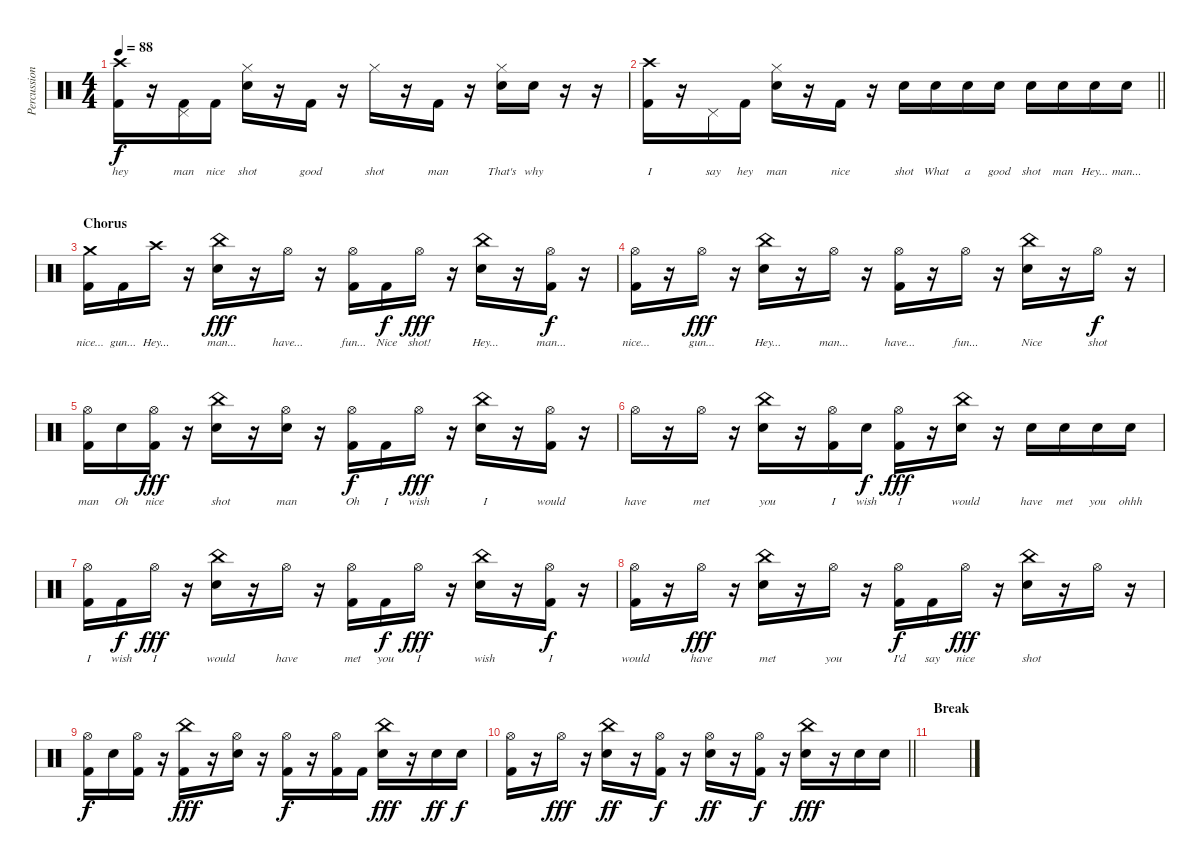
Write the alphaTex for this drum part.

\track ("Percussion" "Percussion") {instrument percussion}
\staff {score}
\articulation defaults
\ts (4 4)
\tempo 88
\clef neutral
\ks c
("Crash high (hit)" "Kick (hit) 2").16{lyrics (0 "hey") lyrics (1 "") lyrics (2 "") lyrics (3 "") lyrics (4 "") dy f} r.16 ("Pedal Hi-Hat (hit)" "Kick (hit) 2").16{lyrics (0 "man") lyrics (1 "") lyrics (2 "") lyrics (3 "") lyrics (4 "")} "Kick (hit) 2".16{lyrics (0 "nice") lyrics (1 "") lyrics (2 "") lyrics (3 "") lyrics (4 "")} ("Hi-Hat (closed)" "Snare (hit) 2").16{lyrics (0 "shot") lyrics (1 "") lyrics (2 "") lyrics (3 "") lyrics (4 "")} r.16 "Kick (hit) 2".16{lyrics (0 "good") lyrics (1 "") lyrics (2 "") lyrics (3 "") lyrics (4 "")} r.16 "Hi-Hat (closed)".16{lyrics (0 "shot") lyrics (1 "") lyrics (2 "") lyrics (3 "") lyrics (4 "")} r.16 "Kick (hit) 2".16{lyrics (0 "man") lyrics (1 "") lyrics (2 "") lyrics (3 "") lyrics (4 "")} r.16 ("Hi-Hat (closed)" "Snare (hit) 2").16{lyrics (0 "That's") lyrics (1 "") lyrics (2 "") lyrics (3 "") lyrics (4 "")} "Snare (hit) 2".16{lyrics (0 "why") lyrics (1 "") lyrics (2 "") lyrics (3 "") lyrics (4 "")} r.16 r.16 |
\barLineRight lightlight
("Crash high (hit)" "Kick (hit) 2").16{lyrics (0 "I") lyrics (1 "") lyrics (2 "") lyrics (3 "") lyrics (4 "")} r.16 "Pedal Hi-Hat (hit)".16{lyrics (0 "say") lyrics (1 "") lyrics (2 "") lyrics (3 "") lyrics (4 "")} "Kick (hit) 2".16{lyrics (0 "hey") lyrics (1 "") lyrics (2 "") lyrics (3 "") lyrics (4 "")} ("Hi-Hat (closed)" "Snare (hit) 2").16{lyrics (0 "man") lyrics (1 "") lyrics (2 "") lyrics (3 "") lyrics (4 "")} r.16 "Kick (hit) 2".16{lyrics (0 "nice") lyrics (1 "") lyrics (2 "") lyrics (3 "") lyrics (4 "")} r.16 "Snare (hit) 2".16{lyrics (0 "shot") lyrics (1 "") lyrics (2 "") lyrics (3 "") lyrics (4 "")} "Snare (hit) 2".16{lyrics (0 "What") lyrics (1 "") lyrics (2 "") lyrics (3 "") lyrics (4 "")} "Snare (hit) 2".16{lyrics (0 "a") lyrics (1 "") lyrics (2 "") lyrics (3 "") lyrics (4 "")} "Snare (hit) 2".16{lyrics (0 "good") lyrics (1 "") lyrics (2 "") lyrics (3 "") lyrics (4 "")} "Snare (hit) 2".16{lyrics (0 "shot") lyrics (1 "") lyrics (2 "") lyrics (3 "") lyrics (4 "")} "Snare (hit) 2".16{lyrics (0 "man") lyrics (1 "") lyrics (2 "") lyrics (3 "") lyrics (4 "")} "Snare (hit) 2".16{lyrics (0 "Hey...") lyrics (1 "") lyrics (2 "") lyrics (3 "") lyrics (4 "")} "Snare (hit) 2".16{lyrics (0 "man...") lyrics (1 "") lyrics (2 "") lyrics (3 "") lyrics (4 "")} |
\section ("" "Chorus")
("Crash medium (hit)" "Kick (hit) 2").16{lyrics (0 "nice...") lyrics (1 "") lyrics (2 "") lyrics (3 "") lyrics (4 "") volume 12} "Kick (hit) 2".16{lyrics (0 "gun...") lyrics (1 "") lyrics (2 "") lyrics (3 "") lyrics (4 "")} "Crash high (hit)".16{lyrics (0 "Hey...") lyrics (1 "") lyrics (2 "") lyrics (3 "") lyrics (4 "")} r.16 ("China (hit)" "Snare (hit) 2").16{lyrics (0 "man...") lyrics (1 "") lyrics (2 "") lyrics (3 "") lyrics (4 "") dy fff} r.16 "Hi-Hat (open)".16{lyrics (0 "have...") lyrics (1 "") lyrics (2 "") lyrics (3 "") lyrics (4 "")} r.16 ("Hi-Hat (open)" "Kick (hit) 2").16{lyrics (0 "fun...") lyrics (1 "") lyrics (2 "") lyrics (3 "") lyrics (4 "")} "Kick (hit) 2".16{lyrics (0 "Nice") lyrics (1 "") lyrics (2 "") lyrics (3 "") lyrics (4 "") dy f} "Hi-Hat (open)".16{lyrics (0 "shot!") lyrics (1 "") lyrics (2 "") lyrics (3 "") lyrics (4 "") dy fff} r.16 ("China (hit)" "Snare (hit) 2").16{lyrics (0 "Hey...") lyrics (1 "") lyrics (2 "") lyrics (3 "") lyrics (4 "")} r.16 ("Hi-Hat (open)" "Kick (hit) 2").16{lyrics (0 "man...") lyrics (1 "") lyrics (2 "") lyrics (3 "") lyrics (4 "") dy f} r.16 |
("Hi-Hat (open)" "Kick (hit) 2").16{lyrics (0 "nice...") lyrics (1 "") lyrics (2 "") lyrics (3 "") lyrics (4 "")} r.16 "Hi-Hat (open)".16{lyrics (0 "gun...") lyrics (1 "") lyrics (2 "") lyrics (3 "") lyrics (4 "") dy fff} r.16 ("China (hit)" "Snare (hit) 2").16{lyrics (0 "Hey...") lyrics (1 "") lyrics (2 "") lyrics (3 "") lyrics (4 "")} r.16 "Hi-Hat (open)".16{lyrics (0 "man...") lyrics (1 "") lyrics (2 "") lyrics (3 "") lyrics (4 "")} r.16 ("Hi-Hat (open)" "Kick (hit) 2").16{lyrics (0 "have...") lyrics (1 "") lyrics (2 "") lyrics (3 "") lyrics (4 "")} r.16 "Hi-Hat (open)".16{lyrics (0 "fun...") lyrics (1 "") lyrics (2 "") lyrics (3 "") lyrics (4 "")} r.16 ("China (hit)" "Snare (hit) 2").16{lyrics (0 "Nice") lyrics (1 "") lyrics (2 "") lyrics (3 "") lyrics (4 "")} r.16 "Hi-Hat (open)".16{lyrics (0 "shot") lyrics (1 "") lyrics (2 "") lyrics (3 "") lyrics (4 "") dy f} r.16 |
("Hi-Hat (open)" "Kick (hit) 2").16{lyrics (0 "man") lyrics (1 "") lyrics (2 "") lyrics (3 "") lyrics (4 "")} "Snare (hit) 2".16{lyrics (0 "Oh") lyrics (1 "") lyrics (2 "") lyrics (3 "") lyrics (4 "")} ("Hi-Hat (open)" "Kick (hit) 2").16{lyrics (0 "nice") lyrics (1 "") lyrics (2 "") lyrics (3 "") lyrics (4 "") dy fff} r.16 ("China (hit)" "Snare (hit) 2").16{lyrics (0 "shot") lyrics (1 "") lyrics (2 "") lyrics (3 "") lyrics (4 "")} r.16 ("Hi-Hat (open)" "Snare (hit) 2").16{lyrics (0 "man") lyrics (1 "") lyrics (2 "") lyrics (3 "") lyrics (4 "")} r.16 ("Hi-Hat (open)" "Kick (hit) 2").16{lyrics (0 "Oh") lyrics (1 "") lyrics (2 "") lyrics (3 "") lyrics (4 "") dy f} "Kick (hit) 2".16{lyrics (0 "I") lyrics (1 "") lyrics (2 "") lyrics (3 "") lyrics (4 "")} "Hi-Hat (open)".16{lyrics (0 "wish") lyrics (1 "") lyrics (2 "") lyrics (3 "") lyrics (4 "") dy fff} r.16 ("China (hit)" "Snare (hit) 2").16{lyrics (0 "I") lyrics (1 "") lyrics (2 "") lyrics (3 "") lyrics (4 "")} r.16 ("Hi-Hat (open)" "Kick (hit) 2").16{lyrics (0 "would") lyrics (1 "") lyrics (2 "") lyrics (3 "") lyrics (4 "")} r.16 |
"Hi-Hat (open)".16{lyrics (0 "have") lyrics (1 "") lyrics (2 "") lyrics (3 "") lyrics (4 "")} r.16 "Hi-Hat (open)".16{lyrics (0 "met") lyrics (1 "") lyrics (2 "") lyrics (3 "") lyrics (4 "")} r.16 ("China (hit)" "Snare (hit) 2").16{lyrics (0 "you") lyrics (1 "") lyrics (2 "") lyrics (3 "") lyrics (4 "")} r.16 ("Hi-Hat (open)" "Kick (hit) 2").16{lyrics (0 "I") lyrics (1 "") lyrics (2 "") lyrics (3 "") lyrics (4 "")} "Snare (hit) 2".16{lyrics (0 "wish") lyrics (1 "") lyrics (2 "") lyrics (3 "") lyrics (4 "") dy f} ("Hi-Hat (open)" "Kick (hit) 2").16{lyrics (0 "I") lyrics (1 "") lyrics (2 "") lyrics (3 "") lyrics (4 "") dy fff} r.16 ("China (hit)" "Snare (hit) 2").16{lyrics (0 "would") lyrics (1 "") lyrics (2 "") lyrics (3 "") lyrics (4 "")} r.16 "Snare (hit) 2".16{lyrics (0 "have") lyrics (1 "") lyrics (2 "") lyrics (3 "") lyrics (4 "")} "Snare (hit) 2".16{lyrics (0 "met") lyrics (1 "") lyrics (2 "") lyrics (3 "") lyrics (4 "")} "Snare (hit) 2".16{lyrics (0 "you") lyrics (1 "") lyrics (2 "") lyrics (3 "") lyrics (4 "")} "Snare (hit) 2".16{lyrics (0 "ohhh") lyrics (1 "") lyrics (2 "") lyrics (3 "") lyrics (4 "")} |
("Hi-Hat (open)" "Kick (hit) 2").16{lyrics (0 "I") lyrics (1 "") lyrics (2 "") lyrics (3 "") lyrics (4 "")} "Kick (hit) 2".16{lyrics (0 "wish") lyrics (1 "") lyrics (2 "") lyrics (3 "") lyrics (4 "") dy f} "Hi-Hat (open)".16{lyrics (0 "I") lyrics (1 "") lyrics (2 "") lyrics (3 "") lyrics (4 "") dy fff} r.16 ("China (hit)" "Snare (hit) 2").16{lyrics (0 "would") lyrics (1 "") lyrics (2 "") lyrics (3 "") lyrics (4 "")} r.16 "Hi-Hat (open)".16{lyrics (0 "have") lyrics (1 "") lyrics (2 "") lyrics (3 "") lyrics (4 "")} r.16 ("Hi-Hat (open)" "Kick (hit) 2").16{lyrics (0 "met") lyrics (1 "") lyrics (2 "") lyrics (3 "") lyrics (4 "")} "Kick (hit) 2".16{lyrics (0 "you") lyrics (1 "") lyrics (2 "") lyrics (3 "") lyrics (4 "") dy f} "Hi-Hat (open)".16{lyrics (0 "I") lyrics (1 "") lyrics (2 "") lyrics (3 "") lyrics (4 "") dy fff} r.16 ("China (hit)" "Snare (hit) 2").16{lyrics (0 "wish") lyrics (1 "") lyrics (2 "") lyrics (3 "") lyrics (4 "")} r.16 ("Hi-Hat (open)" "Kick (hit) 2").16{lyrics (0 "I") lyrics (1 "") lyrics (2 "") lyrics (3 "") lyrics (4 "") dy f} r.16 |
("Hi-Hat (open)" "Kick (hit) 2").16{lyrics (0 "would") lyrics (1 "") lyrics (2 "") lyrics (3 "") lyrics (4 "")} r.16 "Hi-Hat (open)".16{lyrics (0 "have") lyrics (1 "") lyrics (2 "") lyrics (3 "") lyrics (4 "") dy fff} r.16 ("China (hit)" "Snare (hit) 2").16{lyrics (0 "met") lyrics (1 "") lyrics (2 "") lyrics (3 "") lyrics (4 "")} r.16 "Hi-Hat (open)".16{lyrics (0 "you") lyrics (1 "") lyrics (2 "") lyrics (3 "") lyrics (4 "")} r.16 ("Hi-Hat (open)" "Kick (hit) 2").16{lyrics (0 "I'd") lyrics (1 "") lyrics (2 "") lyrics (3 "") lyrics (4 "") dy f} "Kick (hit) 2".16{lyrics (0 "say") lyrics (1 "") lyrics (2 "") lyrics (3 "") lyrics (4 "")} "Hi-Hat (open)".16{lyrics (0 "nice") lyrics (1 "") lyrics (2 "") lyrics (3 "") lyrics (4 "") dy fff} r.16 ("China (hit)" "Snare (hit) 2").16{lyrics (0 "shot") lyrics (1 "") lyrics (2 "") lyrics (3 "") lyrics (4 "")} r.16 "Hi-Hat (open)".16 r.16 |
("Hi-Hat (open)" "Kick (hit) 2").16{dy f} "Snare (hit) 2".16 ("Hi-Hat (open)" "Kick (hit) 2").16 r.16 ("China (hit)" "Kick (hit) 2").16{dy fff} r.16 ("Hi-Hat (open)" "Snare (hit) 2").16 r.16 ("Hi-Hat (open)" "Kick (hit) 2").16{dy f} r.16 ("Hi-Hat (open)" "Kick (hit) 2").16 "Kick (hit) 2".16 ("China (hit)" "Snare (hit) 2").16{dy fff} r.16 "Snare (hit) 2".16{dy ff} "Snare (hit) 2".16{dy f} |
\barLineRight lightlight
("Hi-Hat (open)" "Kick (hit) 2").16 r.16 "Hi-Hat (open)".16{dy fff} r.16 ("China (hit)" "Snare (hit) 2").16{dy ff} r.16 ("Hi-Hat (open)" "Kick (hit) 2").16{dy f} r.16 ("Hi-Hat (open)" "Snare (hit) 2").16{dy ff} r.16 ("Hi-Hat (open)" "Kick (hit) 2").16{dy f} r.16 ("China (hit)" "Snare (hit) 2").16{dy fff} r.16 "Snare (hit) 2".16 "Snare (hit) 2".16 |
\section ("" "Break")
